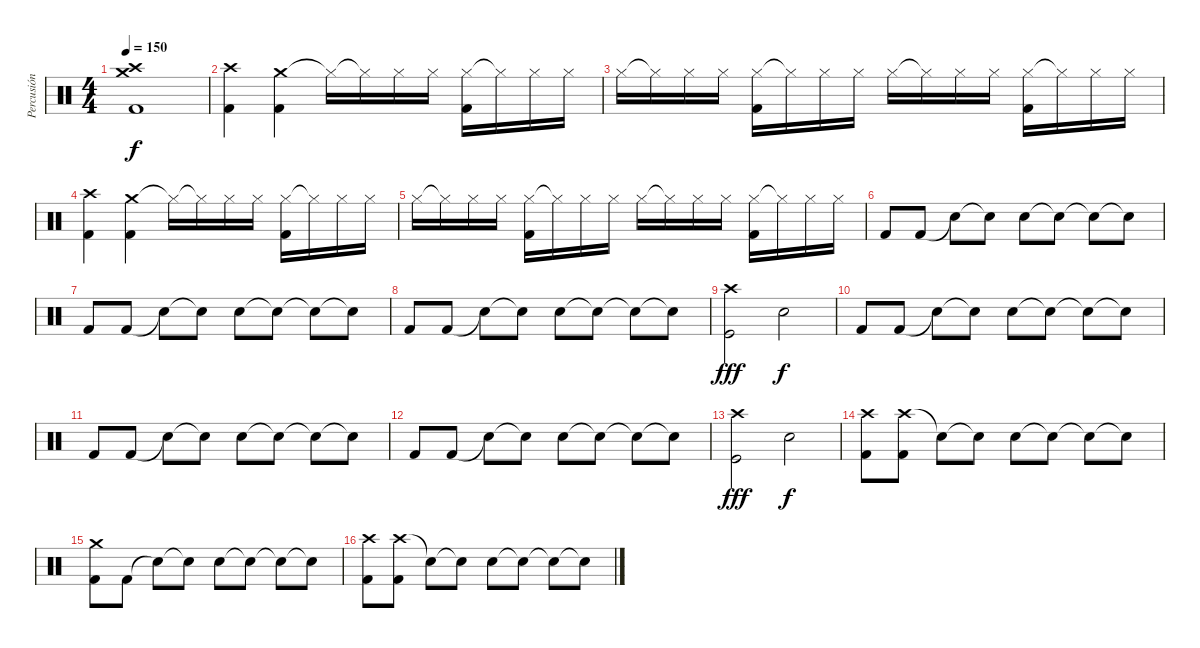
\track ("Percusión" "Percusión") {instrument percussion}
\staff {score}
\articulation defaults
\ts (4 4)
\tempo 150
\clef neutral
\ks c
("Crash high (hit)" "Crash medium (hit)" "Kick (hit) 2").1{dy f} |
("Crash high (hit)" "Kick (hit) 2").4 ("Crash medium (hit)" "Kick (hit) 2").4 "Hi-Hat (closed)"{t}.16 "Hi-Hat (closed)"{t}.16 "Hi-Hat (closed)".16 "Hi-Hat (closed)".16 ("Hi-Hat (closed)" "Kick (hit) 2").16 "Hi-Hat (closed)"{t}.16 "Hi-Hat (closed)".16 "Hi-Hat (closed)".16 |
"Hi-Hat (closed)".16 "Hi-Hat (closed)"{t}.16 "Hi-Hat (closed)".16 "Hi-Hat (closed)".16 ("Hi-Hat (closed)" "Kick (hit) 2").16 "Hi-Hat (closed)"{t}.16 "Hi-Hat (closed)".16 "Hi-Hat (closed)".16 "Hi-Hat (closed)".16 "Hi-Hat (closed)"{t}.16 "Hi-Hat (closed)".16 "Hi-Hat (closed)".16 ("Hi-Hat (closed)" "Kick (hit) 2").16 "Hi-Hat (closed)"{t}.16 "Hi-Hat (closed)".16 "Hi-Hat (closed)".16 |
("Crash high (hit)" "Kick (hit) 2").4 ("Crash medium (hit)" "Kick (hit) 2").4 "Hi-Hat (closed)"{t}.16 "Hi-Hat (closed)"{t}.16 "Hi-Hat (closed)".16 "Hi-Hat (closed)".16 ("Hi-Hat (closed)" "Kick (hit) 2").16 "Hi-Hat (closed)"{t}.16 "Hi-Hat (closed)".16 "Hi-Hat (closed)".16 |
"Hi-Hat (closed)".16 "Hi-Hat (closed)"{t}.16 "Hi-Hat (closed)".16 "Hi-Hat (closed)".16 ("Hi-Hat (closed)" "Kick (hit) 2").16 "Hi-Hat (closed)"{t}.16 "Hi-Hat (closed)".16 "Hi-Hat (closed)".16 "Hi-Hat (closed)".16 "Hi-Hat (closed)"{t}.16 "Hi-Hat (closed)".16 "Hi-Hat (closed)".16 ("Hi-Hat (closed)" "Kick (hit) 2").16 "Hi-Hat (closed)"{t}.16 "Hi-Hat (closed)".16 "Hi-Hat (closed)".16 |
"Kick (hit) 2".8 "Kick (hit) 2".8 "Snare (hit)"{t}.8 "Snare (hit)"{t}.8 "Electric Snare (hit)".8 "Snare (hit)"{t}.8 "Snare (hit)"{t}.8 "Snare (hit)"{t}.8 |
"Kick (hit) 2".8 "Kick (hit) 2".8 "Snare (hit)"{t}.8 "Snare (hit)"{t}.8 "Electric Snare (hit)".8 "Snare (hit)"{t}.8 "Snare (hit)"{t}.8 "Snare (hit)"{t}.8 |
"Kick (hit) 2".8 "Kick (hit) 2".8 "Snare (hit)"{t}.8 "Snare (hit)"{t}.8 "Electric Snare (hit)".8 "Snare (hit)"{t}.8 "Snare (hit)"{t}.8 "Snare (hit)"{t}.8 |
("Crash high (hit)" "Kick (hit)").2{dy fff} "Electric Snare (hit)".2{dy f} |
"Kick (hit) 2".8 "Kick (hit) 2".8 "Snare (hit)"{t}.8 "Snare (hit)"{t}.8 "Electric Snare (hit)".8 "Snare (hit)"{t}.8 "Snare (hit)"{t}.8 "Snare (hit)"{t}.8 |
"Kick (hit) 2".8 "Kick (hit) 2".8 "Snare (hit)"{t}.8 "Snare (hit)"{t}.8 "Electric Snare (hit)".8 "Snare (hit)"{t}.8 "Snare (hit)"{t}.8 "Snare (hit)"{t}.8 |
"Kick (hit) 2".8 "Kick (hit) 2".8 "Snare (hit)"{t}.8 "Snare (hit)"{t}.8 "Electric Snare (hit)".8 "Snare (hit)"{t}.8 "Snare (hit)"{t}.8 "Snare (hit)"{t}.8 |
("Crash high (hit)" "Kick (hit)").2{dy fff} "Electric Snare (hit)".2{dy f} |
("Crash high (hit)" "Kick (hit) 2").8 ("Crash high (hit)" "Kick (hit) 2").8 "Snare (hit)"{t}.8 "Snare (hit)"{t}.8 "Electric Snare (hit)".8 "Snare (hit)"{t}.8 "Snare (hit)"{t}.8 "Snare (hit)"{t}.8 |
("Crash medium (hit)" "Kick (hit) 2").8 "Kick (hit) 2".8 "Snare (hit)"{t}.8 "Snare (hit)"{t}.8 "Electric Snare (hit)".8 "Snare (hit)"{t}.8 "Snare (hit)"{t}.8 "Snare (hit)"{t}.8 |
("Crash high (hit)" "Kick (hit) 2").8 ("Crash high (hit)" "Kick (hit) 2").8 "Snare (hit)"{t}.8 "Snare (hit)"{t}.8 "Electric Snare (hit)".8 "Snare (hit)"{t}.8 "Snare (hit)"{t}.8 "Snare (hit)"{t}.8
